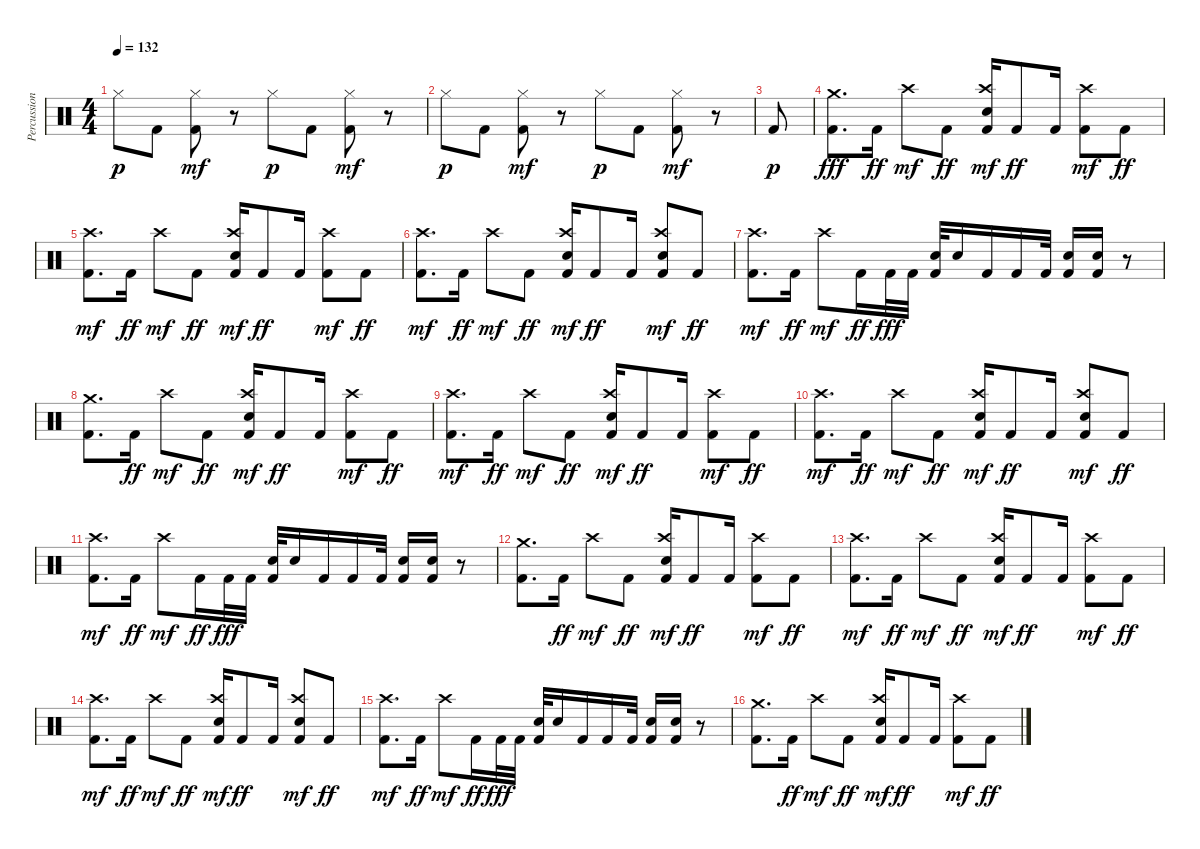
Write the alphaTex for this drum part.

\track ("Percussion" "Percussion") {instrument percussion}
\staff {score}
\articulation defaults
\ts (4 4)
\tempo 132
\clef neutral
\ks c "Hi-Hat (closed)".8{dy p} "Kick (hit) 2".8
("Hi-Hat (closed)" "Kick (hit) 2").8{dy mf} r.8 "Hi-Hat (closed)".8{dy p} "Kick (hit) 2".8 ("Hi-Hat (closed)" "Kick (hit) 2").8{dy mf} r.8 |
"Hi-Hat (closed)".8{dy p} "Kick (hit) 2".8 ("Hi-Hat (closed)" "Kick (hit) 2").8{dy mf} r.8 "Hi-Hat (closed)".8{dy p} "Kick (hit) 2".8 ("Hi-Hat (closed)" "Kick (hit) 2").8{dy mf} r.8 |
"Kick (hit) 2".8{dy p} |
("Kick (hit) 2" "Crash medium (hit)").8{d dy fff volume 16} "Kick (hit) 2".16{dy ff} "Crash high (hit)".8{dy mf} "Kick (hit) 2".8{dy ff} ("Kick (hit) 2" "Electric Snare (hit)" "Crash high (hit)").16{dy mf} "Kick (hit) 2".8{dy ff} "Kick (hit) 2".16 ("Kick (hit) 2" "Crash high (hit)").8{dy mf} "Kick (hit) 2".8{dy ff} |
("Kick (hit) 2" "Crash high (hit)").8{d dy mf} "Kick (hit) 2".16{dy ff} "Crash high (hit)".8{dy mf} "Kick (hit) 2".8{dy ff} ("Kick (hit) 2" "Electric Snare (hit)" "Crash high (hit)").16{dy mf} "Kick (hit) 2".8{dy ff} "Kick (hit) 2".16 ("Kick (hit) 2" "Crash high (hit)").8{dy mf} "Kick (hit) 2".8{dy ff} |
("Kick (hit) 2" "Crash high (hit)").8{d dy mf} "Kick (hit) 2".16{dy ff} "Crash high (hit)".8{dy mf} "Kick (hit) 2".8{dy ff} ("Kick (hit) 2" "Electric Snare (hit)" "Crash high (hit)").16{dy mf} "Kick (hit) 2".8{dy ff} "Kick (hit) 2".16 ("Kick (hit) 2" "Electric Snare (hit)" "Crash high (hit)").8{dy mf} "Kick (hit) 2".8{dy ff} |
("Kick (hit) 2" "Crash high (hit)").8{d dy mf} "Kick (hit) 2".16{dy ff} "Crash high (hit)".8{dy mf} "Kick (hit) 2".16{dy ff} "Kick (hit) 2".32{dy fff} "Kick (hit) 2".32 ("Kick (hit) 2" "Electric Snare (hit)").32 "Electric Snare (hit)".16 "Kick (hit) 2".16 "Kick (hit) 2".16 "Kick (hit) 2".32 ("Kick (hit) 2" "Electric Snare (hit)").16 ("Kick (hit) 2" "Electric Snare (hit)").16 r.8 |
("Kick (hit) 2" "Crash medium (hit)").8{d} "Kick (hit) 2".16{dy ff} "Crash high (hit)".8{dy mf} "Kick (hit) 2".8{dy ff} ("Kick (hit) 2" "Electric Snare (hit)" "Crash high (hit)").16{dy mf} "Kick (hit) 2".8{dy ff} "Kick (hit) 2".16 ("Kick (hit) 2" "Crash high (hit)").8{dy mf} "Kick (hit) 2".8{dy ff} |
("Kick (hit) 2" "Crash high (hit)").8{d dy mf} "Kick (hit) 2".16{dy ff} "Crash high (hit)".8{dy mf} "Kick (hit) 2".8{dy ff} ("Kick (hit) 2" "Electric Snare (hit)" "Crash high (hit)").16{dy mf} "Kick (hit) 2".8{dy ff} "Kick (hit) 2".16 ("Kick (hit) 2" "Crash high (hit)").8{dy mf} "Kick (hit) 2".8{dy ff} |
("Kick (hit) 2" "Crash high (hit)").8{d dy mf} "Kick (hit) 2".16{dy ff} "Crash high (hit)".8{dy mf} "Kick (hit) 2".8{dy ff} ("Kick (hit) 2" "Electric Snare (hit)" "Crash high (hit)").16{dy mf} "Kick (hit) 2".8{dy ff} "Kick (hit) 2".16 ("Kick (hit) 2" "Electric Snare (hit)" "Crash high (hit)").8{dy mf} "Kick (hit) 2".8{dy ff} |
("Kick (hit) 2" "Crash high (hit)").8{d dy mf} "Kick (hit) 2".16{dy ff} "Crash high (hit)".8{dy mf} "Kick (hit) 2".16{dy ff} "Kick (hit) 2".32{dy fff} "Kick (hit) 2".32 ("Kick (hit) 2" "Electric Snare (hit)").32 "Electric Snare (hit)".16 "Kick (hit) 2".16 "Kick (hit) 2".16 "Kick (hit) 2".32 ("Kick (hit) 2" "Electric Snare (hit)").16 ("Kick (hit) 2" "Electric Snare (hit)").16 r.8 |
("Kick (hit) 2" "Crash medium (hit)").8{d} "Kick (hit) 2".16{dy ff} "Crash high (hit)".8{dy mf} "Kick (hit) 2".8{dy ff} ("Kick (hit) 2" "Electric Snare (hit)" "Crash high (hit)").16{dy mf} "Kick (hit) 2".8{dy ff} "Kick (hit) 2".16 ("Kick (hit) 2" "Crash high (hit)").8{dy mf} "Kick (hit) 2".8{dy ff} |
("Kick (hit) 2" "Crash high (hit)").8{d dy mf} "Kick (hit) 2".16{dy ff} "Crash high (hit)".8{dy mf} "Kick (hit) 2".8{dy ff} ("Kick (hit) 2" "Electric Snare (hit)" "Crash high (hit)").16{dy mf} "Kick (hit) 2".8{dy ff} "Kick (hit) 2".16 ("Kick (hit) 2" "Crash high (hit)").8{dy mf} "Kick (hit) 2".8{dy ff} |
("Kick (hit) 2" "Crash high (hit)").8{d dy mf} "Kick (hit) 2".16{dy ff} "Crash high (hit)".8{dy mf} "Kick (hit) 2".8{dy ff} ("Kick (hit) 2" "Electric Snare (hit)" "Crash high (hit)").16{dy mf} "Kick (hit) 2".8{dy ff} "Kick (hit) 2".16 ("Kick (hit) 2" "Electric Snare (hit)" "Crash high (hit)").8{dy mf} "Kick (hit) 2".8{dy ff} |
("Kick (hit) 2" "Crash high (hit)").8{d dy mf} "Kick (hit) 2".16{dy ff} "Crash high (hit)".8{dy mf} "Kick (hit) 2".16{dy ff} "Kick (hit) 2".32{dy fff} "Kick (hit) 2".32 ("Kick (hit) 2" "Electric Snare (hit)").32 "Electric Snare (hit)".16 "Kick (hit) 2".16 "Kick (hit) 2".16 "Kick (hit) 2".32 ("Kick (hit) 2" "Electric Snare (hit)").16 ("Kick (hit) 2" "Electric Snare (hit)").16 r.8 |
("Kick (hit) 2" "Crash medium (hit)").8{d} "Kick (hit) 2".16{dy ff} "Crash high (hit)".8{dy mf} "Kick (hit) 2".8{dy ff} ("Kick (hit) 2" "Electric Snare (hit)" "Crash high (hit)").16{dy mf} "Kick (hit) 2".8{dy ff} "Kick (hit) 2".16 ("Kick (hit) 2" "Crash high (hit)").8{dy mf} "Kick (hit) 2".8{dy ff}
